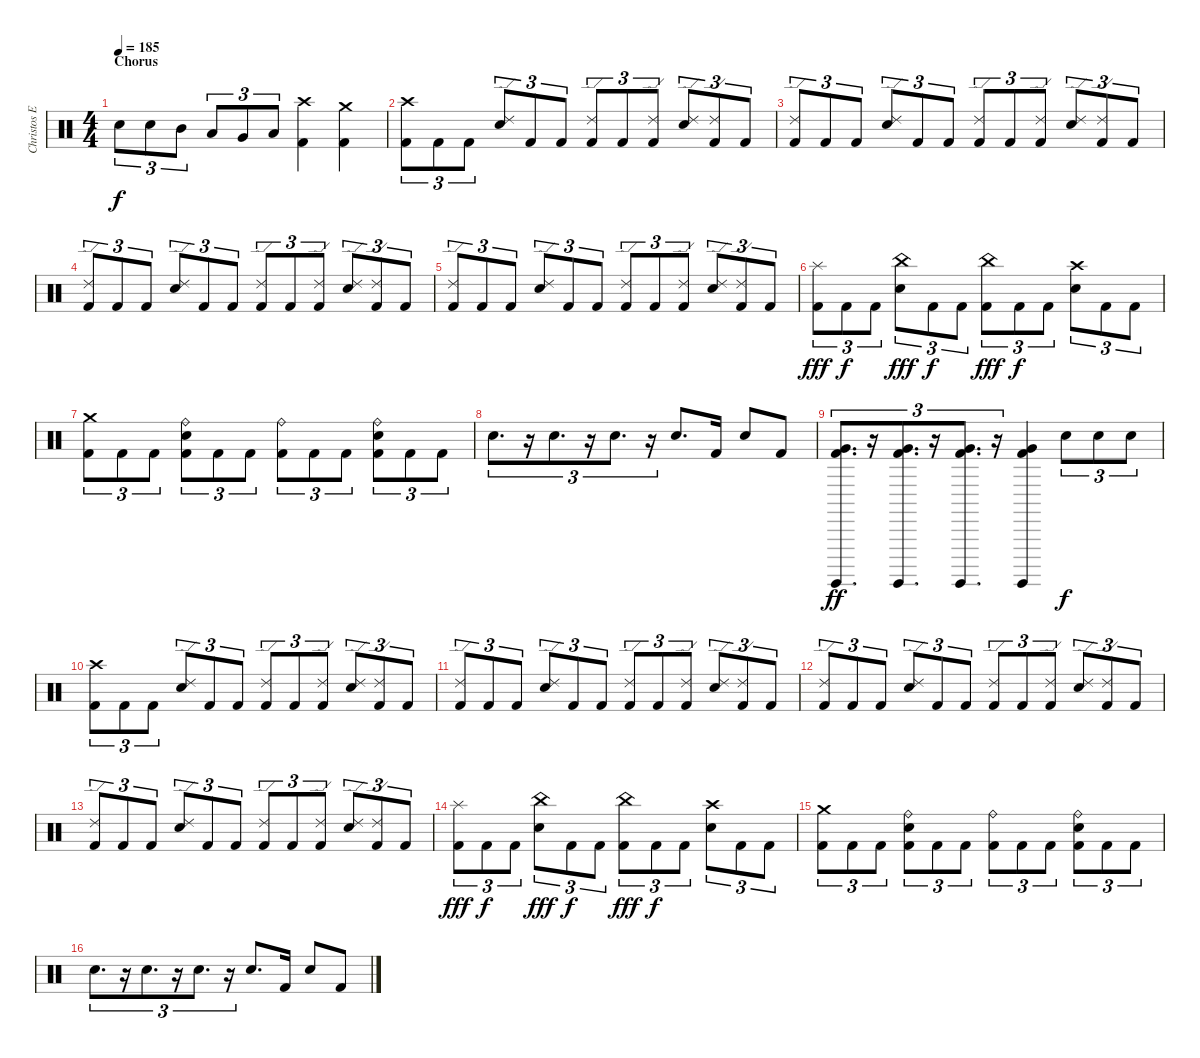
\track ("Christos Ephitimiadis (drums)" "Christos E") {instrument percussion}
\staff {score}
\articulation defaults
\ts (4 4)
\section ("" "Chorus")
\tempo 185
\clef neutral
\ks c "Snare (hit) 2".8{tu (3 2) dy f} "Snare (hit) 2".8{tu (3 2)} "Mid Tom (hit)".8{tu (3 2)} "Low Tom (hit)".8{tu (3 2)} "Very Low Tom (hit)".8{tu (3 2)} "Low Floor Tom (hit)".8{tu (3 2)}
("Crash high (hit)" "Kick (hit) 2").4 ("Crash medium (hit)" "Kick (hit) 2").4 |
("Crash high (hit)" "Kick (hit) 2").8{tu (3 2)} "Kick (hit) 2".8{tu (3 2)} "Kick (hit) 2".8{tu (3 2)} ("Ride (edge) 2" "Snare (hit) 2").8{tu (3 2)} "Kick (hit) 2".8{tu (3 2)} "Kick (hit) 2".8{tu (3 2)} ("Ride (edge) 2" "Kick (hit) 2").8{tu (3 2)} "Kick (hit) 2".8{tu (3 2)} ("Ride (edge) 2" "Kick (hit) 2").8{tu (3 2)} ("Ride (edge) 2" "Snare (hit) 2").8{tu (3 2)} ("Ride (edge) 2" "Kick (hit) 2").8{tu (3 2)} "Kick (hit) 2".8{tu (3 2)} |
("Ride (edge) 2" "Kick (hit) 2").8{tu (3 2)} "Kick (hit) 2".8{tu (3 2)} "Kick (hit) 2".8{tu (3 2)} ("Ride (edge) 2" "Snare (hit) 2").8{tu (3 2)} "Kick (hit) 2".8{tu (3 2)} "Kick (hit) 2".8{tu (3 2)} ("Ride (edge) 2" "Kick (hit) 2").8{tu (3 2)} "Kick (hit) 2".8{tu (3 2)} ("Ride (edge) 2" "Kick (hit) 2").8{tu (3 2)} ("Ride (edge) 2" "Snare (hit) 2").8{tu (3 2)} ("Ride (edge) 2" "Kick (hit) 2").8{tu (3 2)} "Kick (hit) 2".8{tu (3 2)} |
("Ride (edge) 2" "Kick (hit) 2").8{tu (3 2)} "Kick (hit) 2".8{tu (3 2)} "Kick (hit) 2".8{tu (3 2)} ("Ride (edge) 2" "Snare (hit) 2").8{tu (3 2)} "Kick (hit) 2".8{tu (3 2)} "Kick (hit) 2".8{tu (3 2)} ("Ride (edge) 2" "Kick (hit) 2").8{tu (3 2)} "Kick (hit) 2".8{tu (3 2)} ("Ride (edge) 2" "Kick (hit) 2").8{tu (3 2)} ("Ride (edge) 2" "Snare (hit) 2").8{tu (3 2)} ("Ride (edge) 2" "Kick (hit) 2").8{tu (3 2)} "Kick (hit) 2".8{tu (3 2)} |
("Ride (edge) 2" "Kick (hit) 2").8{tu (3 2)} "Kick (hit) 2".8{tu (3 2)} "Kick (hit) 2".8{tu (3 2)} ("Ride (edge) 2" "Snare (hit) 2").8{tu (3 2)} "Kick (hit) 2".8{tu (3 2)} "Kick (hit) 2".8{tu (3 2)} ("Ride (edge) 2" "Kick (hit) 2").8{tu (3 2)} "Kick (hit) 2".8{tu (3 2)} ("Ride (edge) 2" "Kick (hit) 2").8{tu (3 2)} ("Ride (edge) 2" "Snare (hit) 2").8{tu (3 2)} ("Ride (edge) 2" "Kick (hit) 2").8{tu (3 2)} "Kick (hit) 2".8{tu (3 2)} |
("Splash (hit)" "Kick (hit) 2").8{tu (3 2) dy fff} "Kick (hit) 2".8{tu (3 2) dy f} "Kick (hit) 2".8{tu (3 2)} ("China (hit)" "Snare (hit) 2").8{tu (3 2) dy fff} "Kick (hit) 2".8{tu (3 2) dy f} "Kick (hit) 2".8{tu (3 2)} ("China (hit)" "Kick (hit) 2").8{tu (3 2) dy fff} "Kick (hit) 2".8{tu (3 2) dy f} "Kick (hit) 2".8{tu (3 2)} ("Crash high (hit)" "Snare (hit) 2").8{tu (3 2)} "Kick (hit) 2".8{tu (3 2)} "Kick (hit) 2".8{tu (3 2)} |
("Crash medium (hit)" "Kick (hit) 2").8{tu (3 2)} "Kick (hit) 2".8{tu (3 2)} "Kick (hit) 2".8{tu (3 2)} ("Ride (bell)" "Snare (hit) 2" "Kick (hit) 2").8{tu (3 2)} "Kick (hit) 2".8{tu (3 2)} "Kick (hit) 2".8{tu (3 2)} ("Ride (bell)" "Kick (hit) 2").8{tu (3 2)} "Kick (hit) 2".8{tu (3 2)} "Kick (hit) 2".8{tu (3 2)} ("Ride (bell)" "Snare (hit) 2" "Kick (hit) 2").8{tu (3 2)} "Kick (hit) 2".8{tu (3 2)} "Kick (hit) 2".8{tu (3 2)} |
"Snare (hit) 2".8{d tu (3 2)} r.16{tu (3 2)} "Snare (hit) 2".8{d tu (3 2)} r.16{tu (3 2)} "Snare (hit) 2".8{d tu (3 2)} r.16{tu (3 2)} "Snare (hit) 2".8{d} "Kick (hit) 2".16 "Snare (hit) 2".8 "Kick (hit) 2".8 |
("Surdo (hit)" "Very Low Tom (hit)" "Kick (hit) 2").8{d tu (3 2) dy ff} r.16{tu (3 2)} ("Surdo (hit)" "Very Low Tom (hit)" "Kick (hit) 2").8{d tu (3 2)} r.16{tu (3 2)} ("Surdo (hit)" "Very Low Tom (hit)" "Kick (hit) 2").8{d tu (3 2)} r.16{tu (3 2)} ("Surdo (hit)" "Very Low Tom (hit)" "Kick (hit) 2").4 "Snare (hit) 2".8{tu (3 2) dy f} "Snare (hit) 2".8{tu (3 2)} "Snare (hit) 2".8{tu (3 2)} |
("Crash high (hit)" "Kick (hit) 2").8{tu (3 2)} "Kick (hit) 2".8{tu (3 2)} "Kick (hit) 2".8{tu (3 2)} ("Ride (edge) 2" "Snare (hit) 2").8{tu (3 2)} "Kick (hit) 2".8{tu (3 2)} "Kick (hit) 2".8{tu (3 2)} ("Ride (edge) 2" "Kick (hit) 2").8{tu (3 2)} "Kick (hit) 2".8{tu (3 2)} ("Ride (edge) 2" "Kick (hit) 2").8{tu (3 2)} ("Ride (edge) 2" "Snare (hit) 2").8{tu (3 2)} ("Ride (edge) 2" "Kick (hit) 2").8{tu (3 2)} "Kick (hit) 2".8{tu (3 2)} |
("Ride (edge) 2" "Kick (hit) 2").8{tu (3 2)} "Kick (hit) 2".8{tu (3 2)} "Kick (hit) 2".8{tu (3 2)} ("Ride (edge) 2" "Snare (hit) 2").8{tu (3 2)} "Kick (hit) 2".8{tu (3 2)} "Kick (hit) 2".8{tu (3 2)} ("Ride (edge) 2" "Kick (hit) 2").8{tu (3 2)} "Kick (hit) 2".8{tu (3 2)} ("Ride (edge) 2" "Kick (hit) 2").8{tu (3 2)} ("Ride (edge) 2" "Snare (hit) 2").8{tu (3 2)} ("Ride (edge) 2" "Kick (hit) 2").8{tu (3 2)} "Kick (hit) 2".8{tu (3 2)} |
("Ride (edge) 2" "Kick (hit) 2").8{tu (3 2)} "Kick (hit) 2".8{tu (3 2)} "Kick (hit) 2".8{tu (3 2)} ("Ride (edge) 2" "Snare (hit) 2").8{tu (3 2)} "Kick (hit) 2".8{tu (3 2)} "Kick (hit) 2".8{tu (3 2)} ("Ride (edge) 2" "Kick (hit) 2").8{tu (3 2)} "Kick (hit) 2".8{tu (3 2)} ("Ride (edge) 2" "Kick (hit) 2").8{tu (3 2)} ("Ride (edge) 2" "Snare (hit) 2").8{tu (3 2)} ("Ride (edge) 2" "Kick (hit) 2").8{tu (3 2)} "Kick (hit) 2".8{tu (3 2)} |
("Ride (edge) 2" "Kick (hit) 2").8{tu (3 2)} "Kick (hit) 2".8{tu (3 2)} "Kick (hit) 2".8{tu (3 2)} ("Ride (edge) 2" "Snare (hit) 2").8{tu (3 2)} "Kick (hit) 2".8{tu (3 2)} "Kick (hit) 2".8{tu (3 2)} ("Ride (edge) 2" "Kick (hit) 2").8{tu (3 2)} "Kick (hit) 2".8{tu (3 2)} ("Ride (edge) 2" "Kick (hit) 2").8{tu (3 2)} ("Ride (edge) 2" "Snare (hit) 2").8{tu (3 2)} ("Ride (edge) 2" "Kick (hit) 2").8{tu (3 2)} "Kick (hit) 2".8{tu (3 2)} |
("Splash (hit)" "Kick (hit) 2").8{tu (3 2) dy fff} "Kick (hit) 2".8{tu (3 2) dy f} "Kick (hit) 2".8{tu (3 2)} ("China (hit)" "Snare (hit) 2").8{tu (3 2) dy fff} "Kick (hit) 2".8{tu (3 2) dy f} "Kick (hit) 2".8{tu (3 2)} ("China (hit)" "Kick (hit) 2").8{tu (3 2) dy fff} "Kick (hit) 2".8{tu (3 2) dy f} "Kick (hit) 2".8{tu (3 2)} ("Crash high (hit)" "Snare (hit) 2").8{tu (3 2)} "Kick (hit) 2".8{tu (3 2)} "Kick (hit) 2".8{tu (3 2)} |
("Crash medium (hit)" "Kick (hit) 2").8{tu (3 2)} "Kick (hit) 2".8{tu (3 2)} "Kick (hit) 2".8{tu (3 2)} ("Ride (bell)" "Snare (hit) 2" "Kick (hit) 2").8{tu (3 2)} "Kick (hit) 2".8{tu (3 2)} "Kick (hit) 2".8{tu (3 2)} ("Ride (bell)" "Kick (hit) 2").8{tu (3 2)} "Kick (hit) 2".8{tu (3 2)} "Kick (hit) 2".8{tu (3 2)} ("Ride (bell)" "Snare (hit) 2" "Kick (hit) 2").8{tu (3 2)} "Kick (hit) 2".8{tu (3 2)} "Kick (hit) 2".8{tu (3 2)} |
"Snare (hit) 2".8{d tu (3 2)} r.16{tu (3 2)} "Snare (hit) 2".8{d tu (3 2)} r.16{tu (3 2)} "Snare (hit) 2".8{d tu (3 2)} r.16{tu (3 2)} "Snare (hit) 2".8{d} "Kick (hit) 2".16 "Snare (hit) 2".8 "Kick (hit) 2".8
